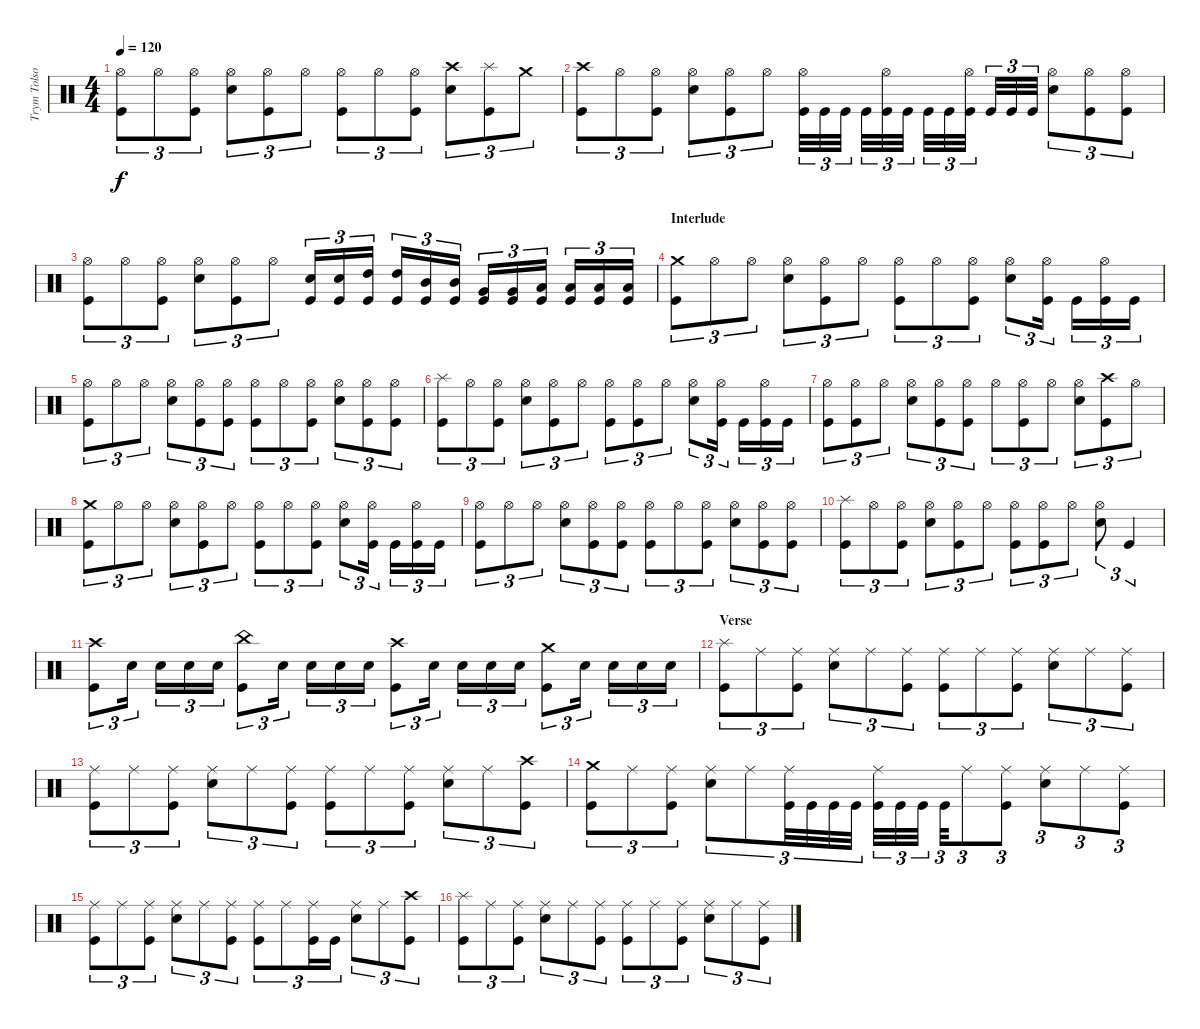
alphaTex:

\track ("Trym Tolson" "Trym Tolso") {instrument percussion}
\staff {score}
\articulation defaults
\ts (4 4)
\tempo 120
\clef neutral
\ks c
("Hi-Hat (open)" "Kick (hit)").8{tu (3 2) dy f} "Hi-Hat (open)".8{tu (3 2)} ("Hi-Hat (open)" "Kick (hit)").8{tu (3 2)} ("Hi-Hat (open)" "Electric Snare (hit)").8{tu (3 2)} ("Hi-Hat (open)" "Kick (hit)").8{tu (3 2)} "Hi-Hat (open)".8{tu (3 2)} ("Hi-Hat (open)" "Kick (hit)").8{tu (3 2)} "Hi-Hat (open)".8{tu (3 2)} ("Hi-Hat (open)" "Kick (hit)").8{tu (3 2)} ("Crash high (hit)" "Electric Snare (hit)").8{tu (3 2)} ("Splash (hit)" "Kick (hit)").8{tu (3 2)} "Crash medium (hit)".8{tu (3 2)} |
("Crash high (hit)" "Kick (hit)").8{tu (3 2)} "Hi-Hat (open)".8{tu (3 2)} ("Hi-Hat (open)" "Kick (hit)").8{tu (3 2)} ("Hi-Hat (open)" "Electric Snare (hit)").8{tu (3 2)} ("Hi-Hat (open)" "Kick (hit)").8{tu (3 2)} "Hi-Hat (open)".8{tu (3 2)} ("Hi-Hat (open)" "Kick (hit)").32{tu (3 2)} "Kick (hit)".32{tu (3 2)} "Kick (hit)".32{tu (3 2)} "Kick (hit)".32{tu (3 2)} ("Hi-Hat (open)" "Kick (hit)").32{tu (3 2)} "Kick (hit)".32{tu (3 2)} "Kick (hit)".32{tu (3 2)} "Kick (hit)".32{tu (3 2)} ("Hi-Hat (open)" "Kick (hit)").32{tu (3 2)} "Kick (hit)".32{tu (3 2)} "Kick (hit)".32{tu (3 2)} "Kick (hit)".32{tu (3 2)} ("Hi-Hat (open)" "Electric Snare (hit)").8{tu (3 2)} ("Hi-Hat (open)" "Kick (hit)").8{tu (3 2)} ("Hi-Hat (open)" "Kick (hit)").8{tu (3 2)} |
("Hi-Hat (open)" "Kick (hit)").8{tu (3 2)} "Hi-Hat (open)".8{tu (3 2)} ("Hi-Hat (open)" "Kick (hit)").8{tu (3 2)} ("Hi-Hat (open)" "Electric Snare (hit)").8{tu (3 2)} ("Hi-Hat (open)" "Kick (hit)").8{tu (3 2)} "Hi-Hat (open)".8{tu (3 2)} ("Electric Snare (hit)" "Kick (hit)").16{tu (3 2)} ("Electric Snare (hit)" "Kick (hit)").16{tu (3 2)} ("High Tom (hit)" "Kick (hit)").16{tu (3 2)} ("High Tom (hit)" "Kick (hit)").16{tu (3 2)} ("Mid Tom (hit)" "Kick (hit)").16{tu (3 2)} ("Mid Tom (hit)" "Kick (hit)").16{tu (3 2)} ("Very Low Tom (hit)" "Kick (hit)").16{tu (3 2)} ("Very Low Tom (hit)" "Kick (hit)").16{tu (3 2)} ("Low Floor Tom (hit)" "Kick (hit)").16{tu (3 2)} ("Low Floor Tom (hit)" "Kick (hit)").16{tu (3 2)} ("Low Floor Tom (hit)" "Kick (hit)").16{tu (3 2)} ("Low Floor Tom (hit)" "Kick (hit)").16{tu (3 2)} |
\section ("" "Interlude")
("Crash medium (hit)" "Kick (hit)").8{tu (3 2)} "Hi-Hat (open)".8{tu (3 2)} "Hi-Hat (open)".8{tu (3 2)} ("Hi-Hat (open)" "Electric Snare (hit)").8{tu (3 2)} ("Hi-Hat (open)" "Kick (hit)").8{tu (3 2)} "Hi-Hat (open)".8{tu (3 2)} ("Hi-Hat (open)" "Kick (hit)").8{tu (3 2)} "Hi-Hat (open)".8{tu (3 2)} ("Hi-Hat (open)" "Kick (hit)").8{tu (3 2)} ("Hi-Hat (open)" "Electric Snare (hit)").8{tu (3 2)} ("Hi-Hat (open)" "Kick (hit)").16{tu (3 2)} "Kick (hit)".16{tu (3 2)} ("Hi-Hat (open)" "Kick (hit)").16{tu (3 2)} "Kick (hit)".16{tu (3 2)} |
("Hi-Hat (open)" "Kick (hit)").8{tu (3 2)} "Hi-Hat (open)".8{tu (3 2)} "Hi-Hat (open)".8{tu (3 2)} ("Hi-Hat (open)" "Electric Snare (hit)").8{tu (3 2)} ("Hi-Hat (open)" "Kick (hit)").8{tu (3 2)} ("Hi-Hat (open)" "Kick (hit)").8{tu (3 2)} ("Hi-Hat (open)" "Kick (hit)").8{tu (3 2)} "Hi-Hat (open)".8{tu (3 2)} ("Hi-Hat (open)" "Kick (hit)").8{tu (3 2)} ("Hi-Hat (open)" "Electric Snare (hit)").8{tu (3 2)} ("Hi-Hat (open)" "Kick (hit)").8{tu (3 2)} ("Hi-Hat (open)" "Kick (hit)").8{tu (3 2)} |
("Splash (hit)" "Kick (hit)").8{tu (3 2)} "Hi-Hat (open)".8{tu (3 2)} ("Hi-Hat (open)" "Kick (hit)").8{tu (3 2)} ("Hi-Hat (open)" "Electric Snare (hit)").8{tu (3 2)} ("Hi-Hat (open)" "Kick (hit)").8{tu (3 2)} "Hi-Hat (open)".8{tu (3 2)} ("Hi-Hat (open)" "Kick (hit)").8{tu (3 2)} ("Hi-Hat (open)" "Kick (hit)").8{tu (3 2)} "Hi-Hat (open)".8{tu (3 2)} ("Hi-Hat (open)" "Electric Snare (hit)").8{tu (3 2)} ("Hi-Hat (open)" "Kick (hit)").16{tu (3 2)} "Kick (hit)".16{tu (3 2)} ("Hi-Hat (open)" "Kick (hit)").16{tu (3 2)} "Kick (hit)".16{tu (3 2)} |
("Hi-Hat (open)" "Kick (hit)").8{tu (3 2)} ("Hi-Hat (open)" "Kick (hit)").8{tu (3 2)} "Hi-Hat (open)".8{tu (3 2)} ("Hi-Hat (open)" "Electric Snare (hit)").8{tu (3 2)} ("Hi-Hat (open)" "Kick (hit)").8{tu (3 2)} ("Hi-Hat (open)" "Kick (hit)").8{tu (3 2)} "Hi-Hat (open)".8{tu (3 2)} ("Hi-Hat (open)" "Kick (hit)").8{tu (3 2)} "Hi-Hat (open)".8{tu (3 2)} ("Hi-Hat (open)" "Electric Snare (hit)").8{tu (3 2)} ("Crash high (hit)" "Kick (hit)").8{tu (3 2)} "Hi-Hat (open)".8{tu (3 2)} |
("Crash medium (hit)" "Kick (hit)").8{tu (3 2)} "Hi-Hat (open)".8{tu (3 2)} "Hi-Hat (open)".8{tu (3 2)} ("Hi-Hat (open)" "Electric Snare (hit)").8{tu (3 2)} ("Hi-Hat (open)" "Kick (hit)").8{tu (3 2)} "Hi-Hat (open)".8{tu (3 2)} ("Hi-Hat (open)" "Kick (hit)").8{tu (3 2)} "Hi-Hat (open)".8{tu (3 2)} ("Hi-Hat (open)" "Kick (hit)").8{tu (3 2)} ("Hi-Hat (open)" "Electric Snare (hit)").8{tu (3 2)} ("Hi-Hat (open)" "Kick (hit)").16{tu (3 2)} "Kick (hit)".16{tu (3 2)} ("Hi-Hat (open)" "Kick (hit)").16{tu (3 2)} "Kick (hit)".16{tu (3 2)} |
("Hi-Hat (open)" "Kick (hit)").8{tu (3 2)} "Hi-Hat (open)".8{tu (3 2)} "Hi-Hat (open)".8{tu (3 2)} ("Hi-Hat (open)" "Electric Snare (hit)").8{tu (3 2)} ("Hi-Hat (open)" "Kick (hit)").8{tu (3 2)} ("Hi-Hat (open)" "Kick (hit)").8{tu (3 2)} ("Hi-Hat (open)" "Kick (hit)").8{tu (3 2)} "Hi-Hat (open)".8{tu (3 2)} ("Hi-Hat (open)" "Kick (hit)").8{tu (3 2)} ("Hi-Hat (open)" "Electric Snare (hit)").8{tu (3 2)} ("Hi-Hat (open)" "Kick (hit)").8{tu (3 2)} ("Hi-Hat (open)" "Kick (hit)").8{tu (3 2)} |
("Splash (hit)" "Kick (hit)").8{tu (3 2)} "Hi-Hat (open)".8{tu (3 2)} ("Hi-Hat (open)" "Kick (hit)").8{tu (3 2)} ("Hi-Hat (open)" "Electric Snare (hit)").8{tu (3 2)} ("Hi-Hat (open)" "Kick (hit)").8{tu (3 2)} "Hi-Hat (open)".8{tu (3 2)} ("Hi-Hat (open)" "Kick (hit)").8{tu (3 2)} ("Hi-Hat (open)" "Kick (hit)").8{tu (3 2)} "Hi-Hat (open)".8{tu (3 2)} ("Hi-Hat (open)" "Electric Snare (hit)").8{tu (3 2)} "Kick (hit)".4{tu (3 2)} |
("Crash high (hit)" "Kick (hit)").8{tu (3 2)} "Electric Snare (hit)".16{tu (3 2)} "Electric Snare (hit)".16{tu (3 2)} "Electric Snare (hit)".16{tu (3 2)} "Electric Snare (hit)".16{tu (3 2)} ("China (hit)" "Kick (hit)").8{tu (3 2)} "Electric Snare (hit)".16{tu (3 2)} "Electric Snare (hit)".16{tu (3 2)} "Electric Snare (hit)".16{tu (3 2)} "Electric Snare (hit)".16{tu (3 2)} ("Crash high (hit)" "Kick (hit)").8{tu (3 2)} "Electric Snare (hit)".16{tu (3 2)} "Electric Snare (hit)".16{tu (3 2)} "Electric Snare (hit)".16{tu (3 2)} "Electric Snare (hit)".16{tu (3 2)} ("Crash medium (hit)" "Kick (hit)").8{tu (3 2)} "Electric Snare (hit)".16{tu (3 2)} "Electric Snare (hit)".16{tu (3 2)} "Electric Snare (hit)".16{tu (3 2)} "Electric Snare (hit)".16{tu (3 2)} |
\section ("" "Verse")
("Splash (hit)" "Kick (hit)").8{tu (3 2)} "Ride (middle)".8{tu (3 2)} ("Ride (middle)" "Kick (hit)").8{tu (3 2)} ("Ride (middle)" "Electric Snare (hit)").8{tu (3 2)} "Ride (middle)".8{tu (3 2)} ("Ride (middle)" "Kick (hit)").8{tu (3 2)} ("Ride (middle)" "Kick (hit)").8{tu (3 2)} "Ride (middle)".8{tu (3 2)} ("Ride (middle)" "Kick (hit)").8{tu (3 2)} ("Ride (middle)" "Electric Snare (hit)").8{tu (3 2)} "Ride (middle)".8{tu (3 2)} ("Ride (middle)" "Kick (hit)").8{tu (3 2)} |
("Ride (middle)" "Kick (hit)").8{tu (3 2)} "Ride (middle)".8{tu (3 2)} ("Ride (middle)" "Kick (hit)").8{tu (3 2)} ("Ride (middle)" "Electric Snare (hit)").8{tu (3 2)} "Ride (middle)".8{tu (3 2)} ("Ride (middle)" "Kick (hit)").8{tu (3 2)} ("Ride (middle)" "Kick (hit)").8{tu (3 2)} "Ride (middle)".8{tu (3 2)} ("Ride (middle)" "Kick (hit)").8{tu (3 2)} ("Ride (middle)" "Electric Snare (hit)").8{tu (3 2)} "Ride (middle)".8{tu (3 2)} ("Crash high (hit)" "Kick (hit)").8{tu (3 2)} |
("Crash medium (hit)" "Kick (hit)").8{tu (3 2)} "Ride (middle)".8{tu (3 2)} ("Ride (middle)" "Kick (hit)").8{tu (3 2)} ("Ride (middle)" "Electric Snare (hit)").8{tu (3 2)} "Ride (middle)".8{tu (3 2)} ("Ride (middle)" "Kick (hit)").32{tu (3 2)} "Kick (hit)".32{tu (3 2)} "Kick (hit)".32{tu (3 2)} "Kick (hit)".32{tu (3 2)} ("Ride (middle)" "Kick (hit)").32{tu (3 2)} "Kick (hit)".32{tu (3 2)} "Kick (hit)".32{tu (3 2)} "Kick (hit)".32{tu (3 2)} "Ride (middle)".8{tu (3 2)} ("Ride (middle)" "Kick (hit)").8{tu (3 2)} ("Ride (middle)" "Electric Snare (hit)").8{tu (3 2)} "Ride (middle)".8{tu (3 2)} ("Ride (middle)" "Kick (hit)").8{tu (3 2)} |
("Ride (middle)" "Kick (hit)").8{tu (3 2)} "Ride (middle)".8{tu (3 2)} ("Ride (middle)" "Kick (hit)").8{tu (3 2)} ("Ride (middle)" "Electric Snare (hit)").8{tu (3 2)} "Ride (middle)".8{tu (3 2)} ("Ride (middle)" "Kick (hit)").8{tu (3 2)} ("Ride (middle)" "Kick (hit)").8{tu (3 2)} "Ride (middle)".8{tu (3 2)} ("Ride (middle)" "Kick (hit)").16{tu (3 2)} "Kick (hit)".16{tu (3 2)} ("Ride (middle)" "Electric Snare (hit)").8{tu (3 2)} "Ride (middle)".8{tu (3 2)} ("Crash high (hit)" "Kick (hit)").8{tu (3 2)} |
("Splash (hit)" "Kick (hit)").8{tu (3 2)} "Ride (middle)".8{tu (3 2)} ("Ride (middle)" "Kick (hit)").8{tu (3 2)} ("Ride (middle)" "Electric Snare (hit)").8{tu (3 2)} "Ride (middle)".8{tu (3 2)} ("Ride (middle)" "Kick (hit)").8{tu (3 2)} ("Ride (middle)" "Kick (hit)").8{tu (3 2)} "Ride (middle)".8{tu (3 2)} ("Ride (middle)" "Kick (hit)").8{tu (3 2)} ("Ride (middle)" "Electric Snare (hit)").8{tu (3 2)} "Ride (middle)".8{tu (3 2)} ("Ride (middle)" "Kick (hit)").8{tu (3 2)}
